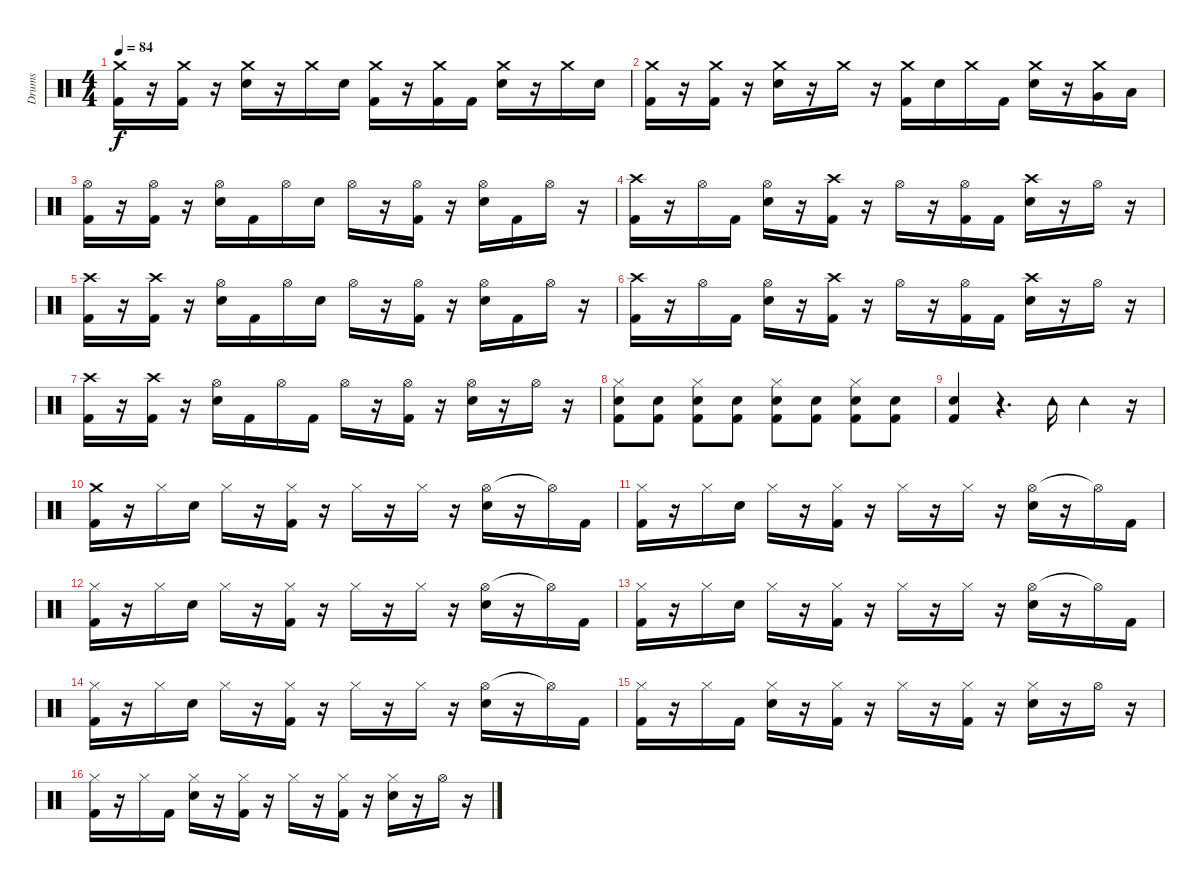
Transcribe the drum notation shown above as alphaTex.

\track ("Drums" "Drums") {instrument percussion}
\staff {score}
\articulation defaults
\ts (4 4)
\tempo 84
\clef neutral
\ks c
("Crash medium (hit)" "Kick (hit) 2").16{dy f} r.16 ("Crash medium (hit)" "Kick (hit) 2").16 r.16 ("Crash medium (hit)" "Snare (hit) 2").16 r.16 "Crash medium (hit)".16 "Snare (hit) 2".16 ("Crash medium (hit)" "Kick (hit) 2").16 r.16 ("Crash medium (hit)" "Kick (hit) 2").16 "Kick (hit) 2".16 ("Crash medium (hit)" "Snare (hit) 2").16 r.16 "Crash medium (hit)".16 "Snare (hit) 2".16 |
("Crash medium (hit)" "Kick (hit) 2").16 r.16 ("Crash medium (hit)" "Kick (hit) 2").16 r.16 ("Crash medium (hit)" "Snare (hit) 2").16 r.16 "Crash medium (hit)".16 r.16 ("Crash medium (hit)" "Kick (hit) 2").16 "Snare (hit) 2".16 "Crash medium (hit)".16 "Kick (hit) 2".16 ("Crash medium (hit)" "Snare (hit) 2").16 r.16 ("Crash medium (hit)" "Very Low Tom (hit)").16 "Low Floor Tom (hit)".16 |
("Hi-Hat (open)" "Kick (hit) 2").16 r.16 ("Hi-Hat (open)" "Kick (hit) 2").16 r.16 ("Hi-Hat (open)" "Snare (hit) 2").16 "Kick (hit) 2".16 "Hi-Hat (open)".16 "Snare (hit) 2".16 "Hi-Hat (open)".16 r.16 ("Hi-Hat (open)" "Kick (hit) 2").16 r.16 ("Hi-Hat (open)" "Snare (hit) 2").16 "Kick (hit) 2".16 "Hi-Hat (open)".16 r.16 |
("Crash high (hit)" "Kick (hit) 2").16 r.16 "Hi-Hat (open)".16 "Kick (hit) 2".16 ("Hi-Hat (open)" "Snare (hit) 2").16 r.16 ("Crash high (hit)" "Kick (hit) 2").16 r.16 "Hi-Hat (open)".16 r.16 ("Hi-Hat (open)" "Kick (hit) 2").16 "Kick (hit) 2".16 ("Crash high (hit)" "Snare (hit) 2").16 r.16 "Hi-Hat (open)".16 r.16 |
("Crash high (hit)" "Kick (hit) 2").16 r.16 ("Crash high (hit)" "Kick (hit) 2").16 r.16 ("Hi-Hat (open)" "Snare (hit) 2").16 "Kick (hit) 2".16 "Hi-Hat (open)".16 "Snare (hit) 2".16 "Hi-Hat (open)".16 r.16 ("Hi-Hat (open)" "Kick (hit) 2").16 r.16 ("Hi-Hat (open)" "Snare (hit) 2").16 "Kick (hit) 2".16 "Hi-Hat (open)".16 r.16 |
("Crash high (hit)" "Kick (hit) 2").16 r.16 "Hi-Hat (open)".16 "Kick (hit) 2".16 ("Hi-Hat (open)" "Snare (hit) 2").16 r.16 ("Crash high (hit)" "Kick (hit) 2").16 r.16 "Hi-Hat (open)".16 r.16 ("Hi-Hat (open)" "Kick (hit) 2").16 "Kick (hit) 2".16 ("Crash high (hit)" "Snare (hit) 2").16 r.16 "Hi-Hat (open)".16 r.16 |
("Crash high (hit)" "Kick (hit) 2").16 r.16 ("Crash high (hit)" "Kick (hit) 2").16 r.16 ("Hi-Hat (open)" "Snare (hit) 2").16 "Kick (hit) 2".16 "Hi-Hat (open)".16 "Kick (hit) 2".16 "Hi-Hat (open)".16 r.16 ("Hi-Hat (open)" "Kick (hit) 2").16 r.16 ("Hi-Hat (open)" "Snare (hit) 2").16 r.16 "Hi-Hat (open)".16 r.16 |
("Hi-Hat (closed)" "Snare (hit) 2" "Kick (hit) 2").8 ("Snare (hit) 2" "Kick (hit) 2").8 ("Hi-Hat (closed)" "Snare (hit) 2" "Kick (hit) 2").8 ("Snare (hit) 2" "Kick (hit) 2").8 ("Hi-Hat (closed)" "Snare (hit) 2" "Kick (hit) 2").8 ("Snare (hit) 2" "Kick (hit) 2").8 ("Hi-Hat (closed)" "Snare (hit) 2" "Kick (hit) 2").8 ("Snare (hit) 2" "Kick (hit) 2").8 |
("Snare (hit) 2" "Kick (hit) 2").4 r.4{d} "Tambourine (hit)".16 "Tambourine (hit)".4 r.16 |
("Crash medium (hit)" "Kick (hit) 2").16 r.16 "Hi-Hat (closed)".16 "Snare (hit) 2".16 "Hi-Hat (closed)".16 r.16 ("Hi-Hat (closed)" "Kick (hit) 2").16 r.16 "Hi-Hat (closed)".16 r.16 "Hi-Hat (closed)".16 r.16 ("Hi-Hat (open)" "Snare (hit) 2").16 r.16 "Hi-Hat (open)"{t}.16 "Kick (hit) 2".16 |
("Hi-Hat (closed)" "Kick (hit) 2").16 r.16 "Hi-Hat (closed)".16 "Snare (hit) 2".16 "Hi-Hat (closed)".16 r.16 ("Hi-Hat (closed)" "Kick (hit) 2").16 r.16 "Hi-Hat (closed)".16 r.16 "Hi-Hat (closed)".16 r.16 ("Hi-Hat (open)" "Snare (hit) 2").16 r.16 "Hi-Hat (open)"{t}.16 "Kick (hit) 2".16 |
("Hi-Hat (closed)" "Kick (hit) 2").16 r.16 "Hi-Hat (closed)".16 "Snare (hit) 2".16 "Hi-Hat (closed)".16 r.16 ("Hi-Hat (closed)" "Kick (hit) 2").16 r.16 "Hi-Hat (closed)".16 r.16 "Hi-Hat (closed)".16 r.16 ("Hi-Hat (open)" "Snare (hit) 2").16 r.16 "Hi-Hat (open)"{t}.16 "Kick (hit) 2".16 |
("Hi-Hat (closed)" "Kick (hit) 2").16 r.16 "Hi-Hat (closed)".16 "Snare (hit) 2".16 "Hi-Hat (closed)".16 r.16 ("Hi-Hat (closed)" "Kick (hit) 2").16 r.16 "Hi-Hat (closed)".16 r.16 "Hi-Hat (closed)".16 r.16 ("Hi-Hat (open)" "Snare (hit) 2").16 r.16 "Hi-Hat (open)"{t}.16 "Kick (hit) 2".16 |
("Hi-Hat (closed)" "Kick (hit) 2").16 r.16 "Hi-Hat (closed)".16 "Snare (hit) 2".16 "Hi-Hat (closed)".16 r.16 ("Hi-Hat (closed)" "Kick (hit) 2").16 r.16 "Hi-Hat (closed)".16 r.16 "Hi-Hat (closed)".16 r.16 ("Hi-Hat (open)" "Snare (hit) 2").16 r.16 "Hi-Hat (open)"{t}.16 "Kick (hit) 2".16 |
("Hi-Hat (closed)" "Kick (hit) 2").16 r.16 "Hi-Hat (closed)".16 "Kick (hit) 2".16 ("Hi-Hat (closed)" "Snare (hit) 2").16 r.16 ("Hi-Hat (closed)" "Kick (hit) 2").16 r.16 "Hi-Hat (closed)".16 r.16 ("Hi-Hat (closed)" "Kick (hit) 2").16 r.16 ("Hi-Hat (closed)" "Snare (hit) 2").16 r.16 "Hi-Hat (open)".16 r.16 |
("Hi-Hat (closed)" "Kick (hit) 2").16 r.16 "Hi-Hat (closed)".16 "Kick (hit) 2".16 ("Hi-Hat (closed)" "Snare (hit) 2").16 r.16 ("Hi-Hat (closed)" "Kick (hit) 2").16 r.16 "Hi-Hat (closed)".16 r.16 ("Hi-Hat (closed)" "Kick (hit) 2").16 r.16 ("Hi-Hat (closed)" "Snare (hit) 2").16 r.16 "Hi-Hat (open)".16 r.16
